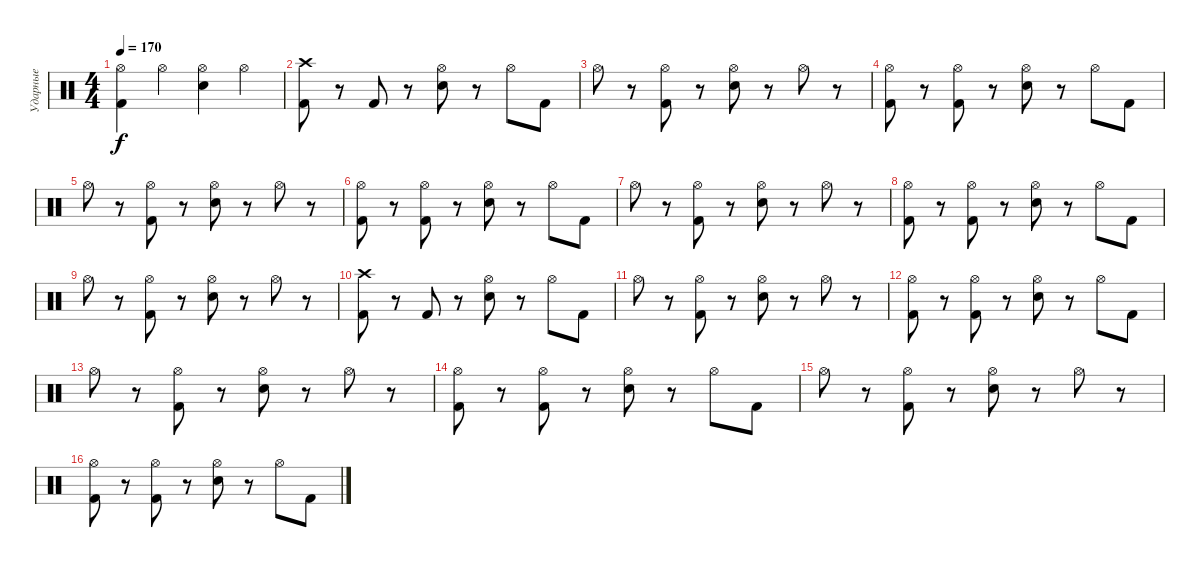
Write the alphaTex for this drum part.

\track ("Ударные" "Ударные") {instrument percussion}
\staff {score}
\articulation defaults
\ts (4 4)
\tempo 170
\clef neutral
\ks c
("Hi-Hat (open)" "Kick (hit) 2").4{dy f} "Hi-Hat (open)".4 ("Hi-Hat (open)" "Electric Snare (hit)").4 "Hi-Hat (open)".4 |
("Crash high (hit)" "Kick (hit) 2").8 r.8 "Kick (hit) 2".8 r.8 ("Hi-Hat (open)" "Electric Snare (hit)").8 r.8 "Hi-Hat (open)".8 "Kick (hit) 2".8 |
"Hi-Hat (open)".8 r.8 ("Hi-Hat (open)" "Kick (hit) 2").8 r.8 ("Hi-Hat (open)" "Electric Snare (hit)").8 r.8 "Hi-Hat (open)".8 r.8 |
("Hi-Hat (open)" "Kick (hit) 2").8 r.8 ("Hi-Hat (open)" "Kick (hit) 2").8 r.8 ("Hi-Hat (open)" "Electric Snare (hit)").8 r.8 "Hi-Hat (open)".8 "Kick (hit) 2".8 |
"Hi-Hat (open)".8 r.8 ("Hi-Hat (open)" "Kick (hit) 2").8 r.8 ("Hi-Hat (open)" "Electric Snare (hit)").8 r.8 "Hi-Hat (open)".8 r.8 |
("Hi-Hat (open)" "Kick (hit) 2").8 r.8 ("Hi-Hat (open)" "Kick (hit) 2").8 r.8 ("Hi-Hat (open)" "Electric Snare (hit)").8 r.8 "Hi-Hat (open)".8 "Kick (hit) 2".8 |
"Hi-Hat (open)".8 r.8 ("Hi-Hat (open)" "Kick (hit) 2").8 r.8 ("Hi-Hat (open)" "Electric Snare (hit)").8 r.8 "Hi-Hat (open)".8 r.8 |
("Hi-Hat (open)" "Kick (hit) 2").8 r.8 ("Hi-Hat (open)" "Kick (hit) 2").8 r.8 ("Hi-Hat (open)" "Electric Snare (hit)").8 r.8 "Hi-Hat (open)".8 "Kick (hit) 2".8 |
"Hi-Hat (open)".8 r.8 ("Hi-Hat (open)" "Kick (hit) 2").8 r.8 ("Hi-Hat (open)" "Electric Snare (hit)").8 r.8 "Hi-Hat (open)".8 r.8 |
("Crash high (hit)" "Kick (hit) 2").8 r.8 "Kick (hit) 2".8 r.8 ("Hi-Hat (open)" "Electric Snare (hit)").8 r.8 "Hi-Hat (open)".8 "Kick (hit) 2".8 |
"Hi-Hat (open)".8 r.8 ("Hi-Hat (open)" "Kick (hit) 2").8 r.8 ("Hi-Hat (open)" "Electric Snare (hit)").8 r.8 "Hi-Hat (open)".8 r.8 |
("Hi-Hat (open)" "Kick (hit) 2").8 r.8 ("Hi-Hat (open)" "Kick (hit) 2").8 r.8 ("Hi-Hat (open)" "Electric Snare (hit)").8 r.8 "Hi-Hat (open)".8 "Kick (hit) 2".8 |
"Hi-Hat (open)".8 r.8 ("Hi-Hat (open)" "Kick (hit) 2").8 r.8 ("Hi-Hat (open)" "Electric Snare (hit)").8 r.8 "Hi-Hat (open)".8 r.8 |
("Hi-Hat (open)" "Kick (hit) 2").8 r.8 ("Hi-Hat (open)" "Kick (hit) 2").8 r.8 ("Hi-Hat (open)" "Electric Snare (hit)").8 r.8 "Hi-Hat (open)".8 "Kick (hit) 2".8 |
"Hi-Hat (open)".8 r.8 ("Hi-Hat (open)" "Kick (hit) 2").8 r.8 ("Hi-Hat (open)" "Electric Snare (hit)").8 r.8 "Hi-Hat (open)".8 r.8 |
("Hi-Hat (open)" "Kick (hit) 2").8 r.8 ("Hi-Hat (open)" "Kick (hit) 2").8 r.8 ("Hi-Hat (open)" "Electric Snare (hit)").8 r.8 "Hi-Hat (open)".8 "Kick (hit) 2".8
